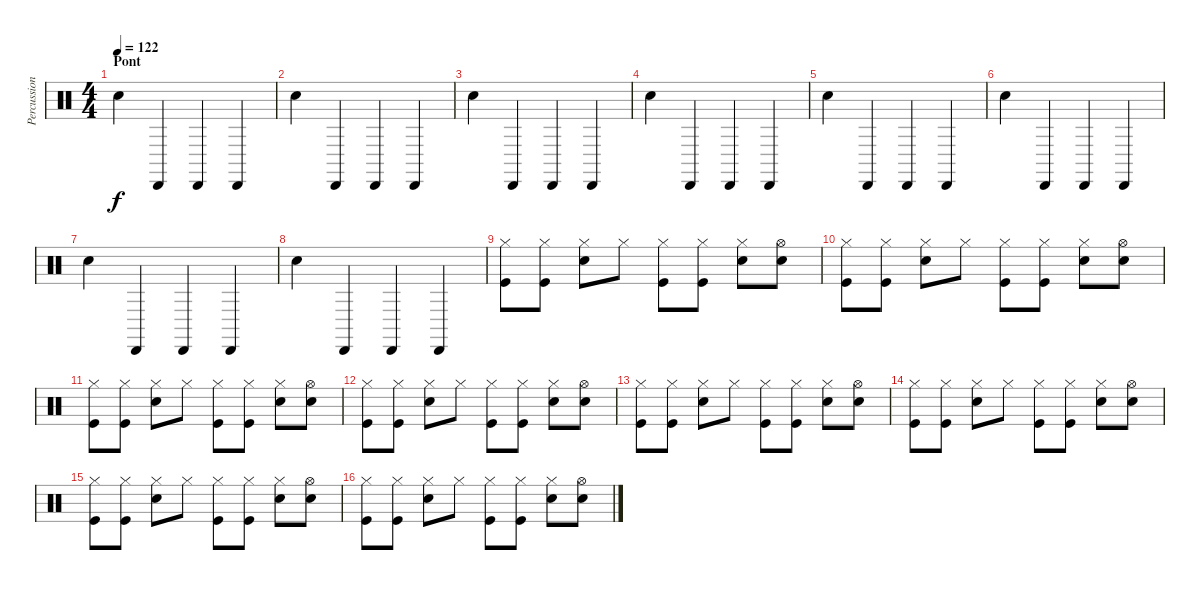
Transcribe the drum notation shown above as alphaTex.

\track ("Percussions" "Percussion") {instrument percussion}
\staff {score}
\articulation defaults
\ts (4 4)
\section ("" "Pont")
\tempo 122
\clef neutral
\ks c "Hand Clap (hit)".4{dy f} "Cabasa (hit)".4 "Cabasa (hit)".4 "Cabasa (hit)".4
|
"Hand Clap (hit)".4 "Cabasa (hit)".4 "Cabasa (hit)".4 "Cabasa (hit)".4 |
"Hand Clap (hit)".4 "Cabasa (hit)".4 "Cabasa (hit)".4 "Cabasa (hit)".4 |
"Hand Clap (hit)".4 "Cabasa (hit)".4 "Cabasa (hit)".4 "Cabasa (hit)".4 |
"Hand Clap (hit)".4 "Cabasa (hit)".4 "Cabasa (hit)".4 "Cabasa (hit)".4 |
"Hand Clap (hit)".4 "Cabasa (hit)".4 "Cabasa (hit)".4 "Cabasa (hit)".4 |
"Hand Clap (hit)".4 "Cabasa (hit)".4 "Cabasa (hit)".4 "Cabasa (hit)".4 |
"Hand Clap (hit)".4 "Cabasa (hit)".4 "Cabasa (hit)".4 "Cabasa (hit)".4 |
("Hi-Hat (closed)" "Kick (hit)").8 ("Hi-Hat (closed)" "Kick (hit)").8 ("Hi-Hat (closed)" "Snare (hit) 2").8 "Hi-Hat (closed)".8 ("Hi-Hat (closed)" "Kick (hit)").8 ("Hi-Hat (closed)" "Kick (hit)").8 ("Hi-Hat (closed)" "Snare (hit) 2").8 ("Hi-Hat (open)" "Snare (hit) 2").8 |
("Hi-Hat (closed)" "Kick (hit)").8 ("Hi-Hat (closed)" "Kick (hit)").8 ("Hi-Hat (closed)" "Snare (hit) 2").8 "Hi-Hat (closed)".8 ("Hi-Hat (closed)" "Kick (hit)").8 ("Hi-Hat (closed)" "Kick (hit)").8 ("Hi-Hat (closed)" "Snare (hit) 2").8 ("Hi-Hat (open)" "Snare (hit) 2").8 |
("Hi-Hat (closed)" "Kick (hit)").8 ("Hi-Hat (closed)" "Kick (hit)").8 ("Hi-Hat (closed)" "Snare (hit) 2").8 "Hi-Hat (closed)".8 ("Hi-Hat (closed)" "Kick (hit)").8 ("Hi-Hat (closed)" "Kick (hit)").8 ("Hi-Hat (closed)" "Snare (hit) 2").8 ("Hi-Hat (open)" "Snare (hit) 2").8 |
("Hi-Hat (closed)" "Kick (hit)").8 ("Hi-Hat (closed)" "Kick (hit)").8 ("Hi-Hat (closed)" "Snare (hit) 2").8 "Hi-Hat (closed)".8 ("Hi-Hat (closed)" "Kick (hit)").8 ("Hi-Hat (closed)" "Kick (hit)").8 ("Hi-Hat (closed)" "Snare (hit) 2").8 ("Hi-Hat (open)" "Snare (hit) 2").8 |
("Hi-Hat (closed)" "Kick (hit)").8 ("Hi-Hat (closed)" "Kick (hit)").8 ("Hi-Hat (closed)" "Snare (hit) 2").8 "Hi-Hat (closed)".8 ("Hi-Hat (closed)" "Kick (hit)").8 ("Hi-Hat (closed)" "Kick (hit)").8 ("Hi-Hat (closed)" "Snare (hit) 2").8 ("Hi-Hat (open)" "Snare (hit) 2").8 |
("Hi-Hat (closed)" "Kick (hit)").8 ("Hi-Hat (closed)" "Kick (hit)").8 ("Hi-Hat (closed)" "Snare (hit) 2").8 "Hi-Hat (closed)".8 ("Hi-Hat (closed)" "Kick (hit)").8 ("Hi-Hat (closed)" "Kick (hit)").8 ("Hi-Hat (closed)" "Snare (hit) 2").8 ("Hi-Hat (open)" "Snare (hit) 2").8 |
("Hi-Hat (closed)" "Kick (hit)").8 ("Hi-Hat (closed)" "Kick (hit)").8 ("Hi-Hat (closed)" "Snare (hit) 2").8 "Hi-Hat (closed)".8 ("Hi-Hat (closed)" "Kick (hit)").8 ("Hi-Hat (closed)" "Kick (hit)").8 ("Hi-Hat (closed)" "Snare (hit) 2").8 ("Hi-Hat (open)" "Snare (hit) 2").8 |
("Hi-Hat (closed)" "Kick (hit)").8 ("Hi-Hat (closed)" "Kick (hit)").8 ("Hi-Hat (closed)" "Snare (hit) 2").8 "Hi-Hat (closed)".8 ("Hi-Hat (closed)" "Kick (hit)").8 ("Hi-Hat (closed)" "Kick (hit)").8 ("Hi-Hat (closed)" "Snare (hit) 2").8 ("Hi-Hat (open)" "Snare (hit) 2").8
